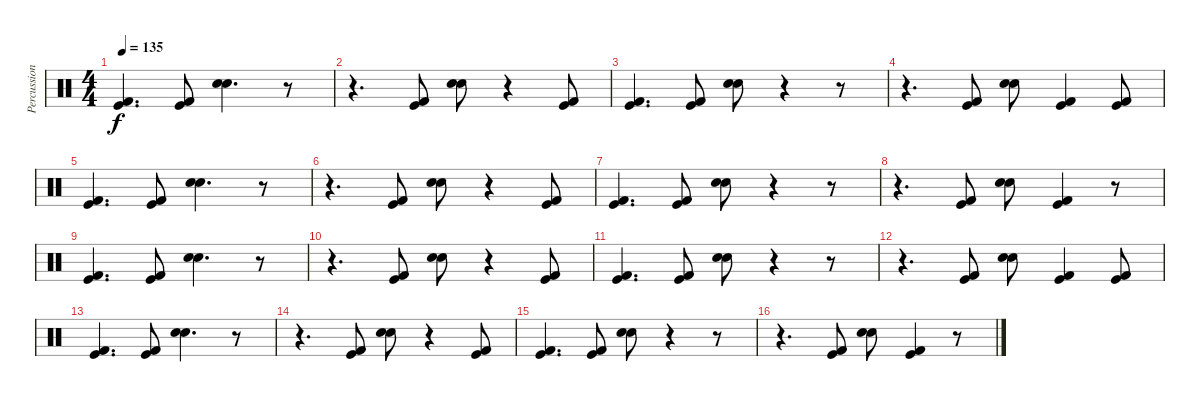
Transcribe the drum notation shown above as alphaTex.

\track ("Percussion" "Percussion") {instrument percussion}
\staff {score}
\articulation defaults
\ts (4 4)
\tempo 135
\clef neutral
\ks c
("Kick (hit) 2" "Kick (hit)").4{d dy f} ("Kick (hit) 2" "Kick (hit)").8 ("Electric Snare (hit)" "Hand Clap (hit)").4{d} r.8 |
r.4{d} ("Kick (hit) 2" "Kick (hit)").8 ("Electric Snare (hit)" "Hand Clap (hit)").8 r.4 ("Kick (hit) 2" "Kick (hit)").8 |
("Kick (hit) 2" "Kick (hit)").4{d} ("Kick (hit) 2" "Kick (hit)").8 ("Electric Snare (hit)" "Hand Clap (hit)").8 r.4 r.8 |
r.4{d} ("Kick (hit) 2" "Kick (hit)").8 ("Electric Snare (hit)" "Hand Clap (hit)").8 ("Kick (hit) 2" "Kick (hit)").4 ("Kick (hit) 2" "Kick (hit)").8 |
("Kick (hit) 2" "Kick (hit)").4{d} ("Kick (hit) 2" "Kick (hit)").8 ("Electric Snare (hit)" "Hand Clap (hit)").4{d} r.8 |
r.4{d} ("Kick (hit) 2" "Kick (hit)").8 ("Electric Snare (hit)" "Hand Clap (hit)").8 r.4 ("Kick (hit) 2" "Kick (hit)").8 |
("Kick (hit) 2" "Kick (hit)").4{d} ("Kick (hit) 2" "Kick (hit)").8 ("Electric Snare (hit)" "Hand Clap (hit)").8 r.4 r.8 |
r.4{d} ("Kick (hit) 2" "Kick (hit)").8 ("Electric Snare (hit)" "Hand Clap (hit)").8 ("Kick (hit) 2" "Kick (hit)").4 r.8 |
("Kick (hit) 2" "Kick (hit)").4{d} ("Kick (hit) 2" "Kick (hit)").8 ("Electric Snare (hit)" "Hand Clap (hit)").4{d} r.8 |
r.4{d} ("Kick (hit) 2" "Kick (hit)").8 ("Electric Snare (hit)" "Hand Clap (hit)").8 r.4 ("Kick (hit) 2" "Kick (hit)").8 |
("Kick (hit) 2" "Kick (hit)").4{d} ("Kick (hit) 2" "Kick (hit)").8 ("Electric Snare (hit)" "Hand Clap (hit)").8 r.4 r.8 |
r.4{d} ("Kick (hit) 2" "Kick (hit)").8 ("Electric Snare (hit)" "Hand Clap (hit)").8 ("Kick (hit) 2" "Kick (hit)").4 ("Kick (hit) 2" "Kick (hit)").8 |
("Kick (hit) 2" "Kick (hit)").4{d} ("Kick (hit) 2" "Kick (hit)").8 ("Electric Snare (hit)" "Hand Clap (hit)").4{d} r.8 |
r.4{d} ("Kick (hit) 2" "Kick (hit)").8 ("Electric Snare (hit)" "Hand Clap (hit)").8 r.4 ("Kick (hit) 2" "Kick (hit)").8 |
("Kick (hit) 2" "Kick (hit)").4{d} ("Kick (hit) 2" "Kick (hit)").8 ("Electric Snare (hit)" "Hand Clap (hit)").8 r.4 r.8 |
r.4{d} ("Kick (hit) 2" "Kick (hit)").8 ("Electric Snare (hit)" "Hand Clap (hit)").8 ("Kick (hit) 2" "Kick (hit)").4 r.8
